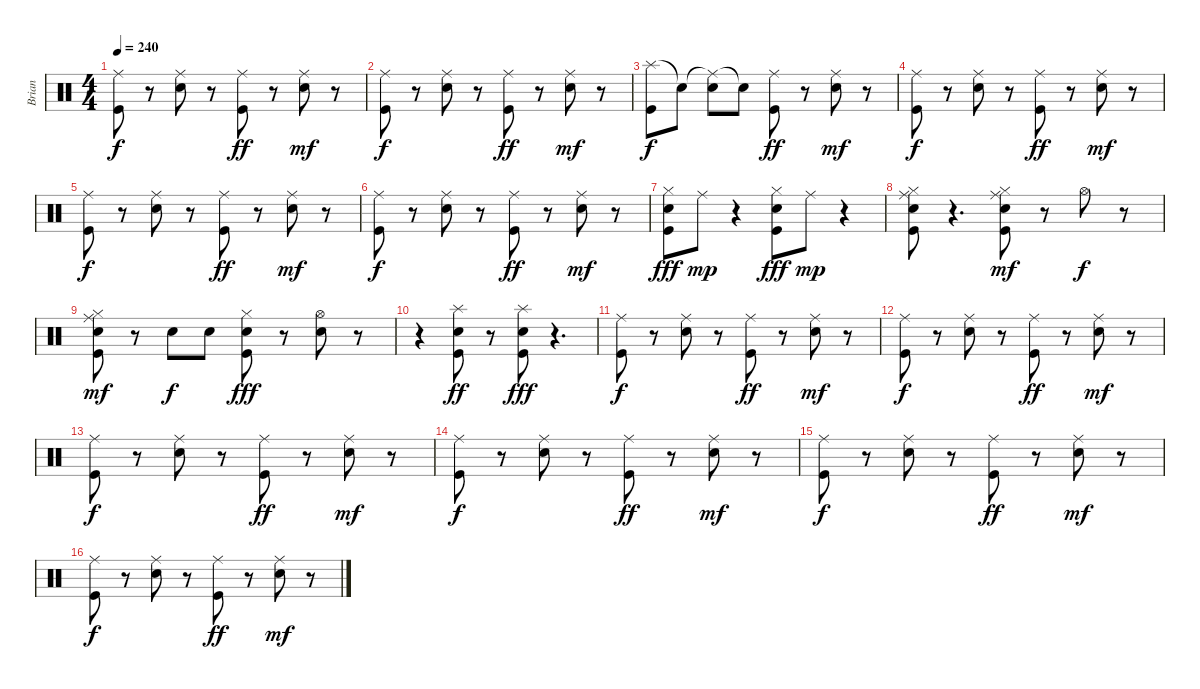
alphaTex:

\track ("Brian" "Brian") {instrument percussion}
\staff {score}
\articulation defaults
\ts (4 4)
\tempo 240
\clef neutral
\ks c
("Ride (middle)" "Kick (hit)").8{dy f} r.8 ("Ride (middle)" "Snare (hit) 2").8 r.8 ("Ride (middle)" "Kick (hit)").8{dy ff} r.8 ("Ride (middle)" "Snare (hit) 2").8{dy mf} r.8 |
("Ride (middle)" "Kick (hit)").8{dy f} r.8 ("Ride (middle)" "Snare (hit) 2").8 r.8 ("Ride (middle)" "Kick (hit)").8{dy ff} r.8 ("Ride (middle)" "Snare (hit) 2").8{dy mf} r.8 |
("Splash (hit)" "Kick (hit)").8{dy f} "Snare (hit)"{t}.8 ("Ride (middle)"{t} "Snare (hit) 2").8 "Snare (hit)"{t}.8 ("Ride (middle)" "Kick (hit)").8{dy ff} r.8 ("Ride (middle)" "Snare (hit) 2").8{dy mf} r.8 |
("Ride (middle)" "Kick (hit)").8{dy f} r.8 ("Ride (middle)" "Snare (hit) 2").8 r.8 ("Ride (middle)" "Kick (hit)").8{dy ff} r.8 ("Ride (middle)" "Snare (hit) 2").8{dy mf} r.8 |
("Ride (middle)" "Kick (hit)").8{dy f} r.8 ("Ride (middle)" "Snare (hit) 2").8 r.8 ("Ride (middle)" "Kick (hit)").8{dy ff} r.8 ("Ride (middle)" "Snare (hit) 2").8{dy mf} r.8 |
("Ride (middle)" "Kick (hit)").8{dy f} r.8 ("Ride (middle)" "Snare (hit) 2").8 r.8 ("Ride (middle)" "Kick (hit)").8{dy ff} r.8 ("Ride (middle)" "Snare (hit) 2").8{dy mf} r.8 |
("Hi-Hat (closed)" "Snare (hit) 2" "Kick (hit)").8{dy fff} "Ride (middle)".8{dy mp} r.4 ("Hi-Hat (closed)" "Snare (hit) 2" "Kick (hit)").8{dy fff} "Ride (middle)".8{dy mp} r.4 |
("Ride (middle)" "Hi-Hat (closed)" "Snare (hit) 2" "Kick (hit)").8 r.4{d} ("Ride (middle)" "Hi-Hat (closed)" "Snare (hit) 2" "Kick (hit)").8{dy mf} r.8 "Hi-Hat (open)".8{dy f} r.8 |
("Ride (middle)" "Hi-Hat (closed)" "Snare (hit) 2" "Kick (hit)").8{dy mf} r.8 "Snare (hit) 2".8{dy f} "Snare (hit) 2".8 ("Hi-Hat (closed)" "Snare (hit) 2" "Kick (hit)").8{dy fff} r.8 ("Hi-Hat (open)" "Snare (hit) 2").8 r.8 |
r.4 ("Splash (hit)" "Snare (hit) 2" "Kick (hit)").8{dy ff} r.8 ("Splash (hit)" "Snare (hit) 2" "Kick (hit)").8{dy fff} r.4{d} |
("Ride (middle)" "Kick (hit)").8{dy f} r.8 ("Ride (middle)" "Snare (hit) 2").8 r.8 ("Ride (middle)" "Kick (hit)").8{dy ff} r.8 ("Ride (middle)" "Snare (hit) 2").8{dy mf} r.8 |
("Ride (middle)" "Kick (hit)").8{dy f} r.8 ("Ride (middle)" "Snare (hit) 2").8 r.8 ("Ride (middle)" "Kick (hit)").8{dy ff} r.8 ("Ride (middle)" "Snare (hit) 2").8{dy mf} r.8 |
("Ride (middle)" "Kick (hit)").8{dy f} r.8 ("Ride (middle)" "Snare (hit) 2").8 r.8 ("Ride (middle)" "Kick (hit)").8{dy ff} r.8 ("Ride (middle)" "Snare (hit) 2").8{dy mf} r.8 |
("Ride (middle)" "Kick (hit)").8{dy f} r.8 ("Ride (middle)" "Snare (hit) 2").8 r.8 ("Ride (middle)" "Kick (hit)").8{dy ff} r.8 ("Ride (middle)" "Snare (hit) 2").8{dy mf} r.8 |
("Ride (middle)" "Kick (hit)").8{dy f} r.8 ("Ride (middle)" "Snare (hit) 2").8 r.8 ("Ride (middle)" "Kick (hit)").8{dy ff} r.8 ("Ride (middle)" "Snare (hit) 2").8{dy mf} r.8 |
("Ride (middle)" "Kick (hit)").8{dy f} r.8 ("Ride (middle)" "Snare (hit) 2").8 r.8 ("Ride (middle)" "Kick (hit)").8{dy ff} r.8 ("Ride (middle)" "Snare (hit) 2").8{dy mf} r.8
